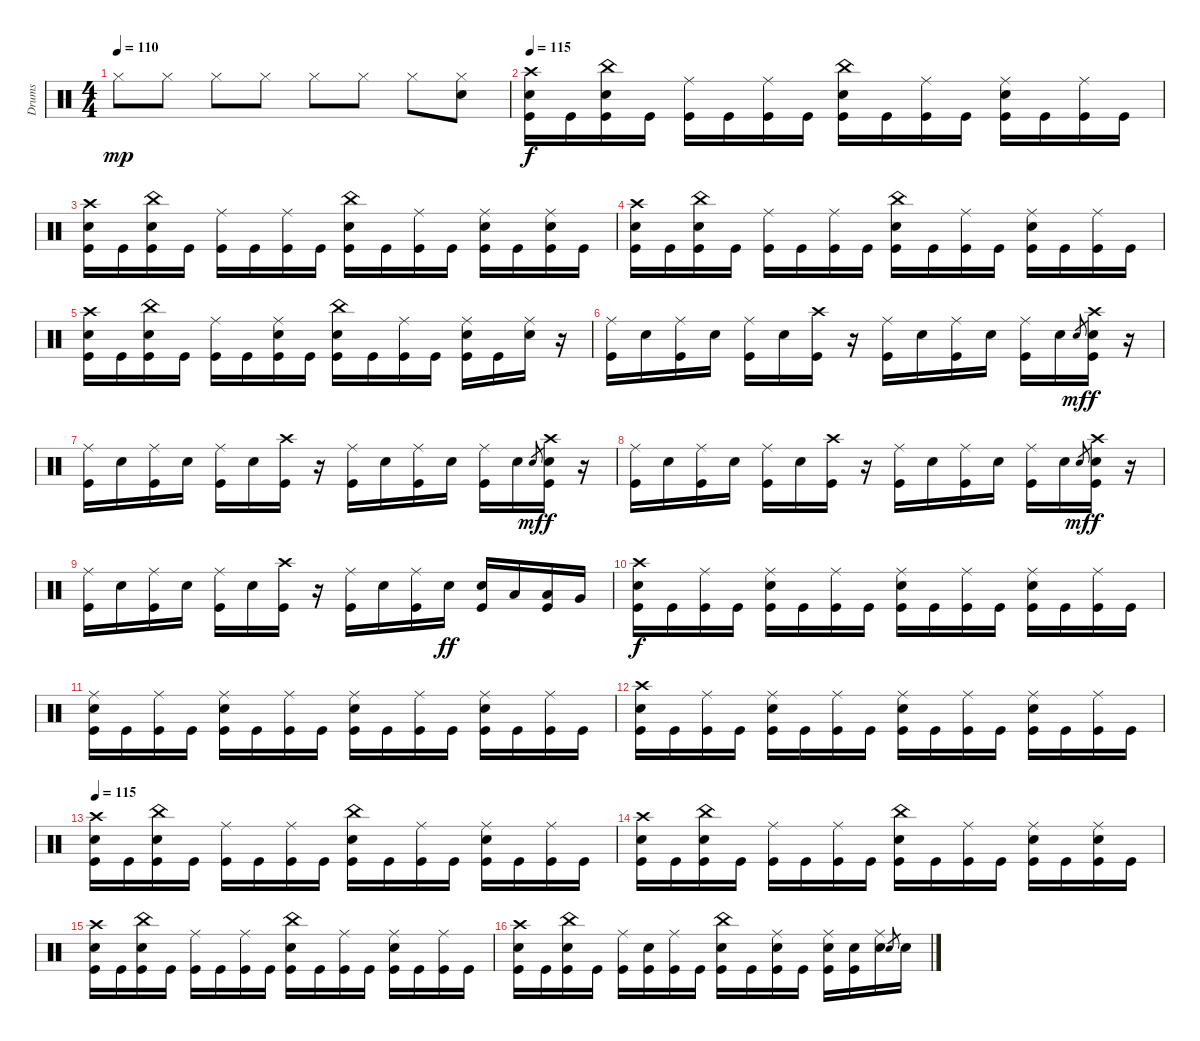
\track ("Drums" "Drums") {instrument percussion}
\staff {score}
\articulation defaults
\ts (4 4)
\tempo 110
\clef neutral
\ks c "Hi-Hat (closed)".8{dy mp} "Hi-Hat (closed)".8 "Hi-Hat (closed)".8 "Hi-Hat (closed)".8 "Hi-Hat (closed)".8 "Hi-Hat (closed)".8 "Hi-Hat (closed)".8
("Hi-Hat (closed)" "Electric Snare (hit)").8 |
\tempo 115
("Crash high (hit)" "Electric Snare (hit)" "Kick (hit)").16{dy f} "Kick (hit)".16 ("China (hit)" "Electric Snare (hit)" "Kick (hit)").16 "Kick (hit)".16 ("Ride (middle)" "Kick (hit)").16 "Kick (hit)".16 ("Ride (middle)" "Kick (hit)").16 "Kick (hit)".16 ("China (hit)" "Electric Snare (hit)" "Kick (hit)").16 "Kick (hit)".16 ("Ride (middle)" "Kick (hit)").16 "Kick (hit)".16 ("Ride (middle)" "Electric Snare (hit)" "Kick (hit)").16 "Kick (hit)".16 ("Ride (middle)" "Kick (hit)").16 "Kick (hit)".16 |
("Crash high (hit)" "Electric Snare (hit)" "Kick (hit)").16 "Kick (hit)".16 ("China (hit)" "Electric Snare (hit)" "Kick (hit)").16 "Kick (hit)".16 ("Ride (middle)" "Kick (hit)").16 "Kick (hit)".16 ("Ride (middle)" "Kick (hit)").16 "Kick (hit)".16 ("China (hit)" "Electric Snare (hit)" "Kick (hit)").16 "Kick (hit)".16 ("Ride (middle)" "Kick (hit)").16 "Kick (hit)".16 ("Ride (middle)" "Electric Snare (hit)" "Kick (hit)").16 "Kick (hit)".16 ("Ride (middle)" "Electric Snare (hit)" "Kick (hit)").16 "Kick (hit)".16 |
("Crash high (hit)" "Electric Snare (hit)" "Kick (hit)").16 "Kick (hit)".16 ("China (hit)" "Electric Snare (hit)" "Kick (hit)").16 "Kick (hit)".16 ("Ride (middle)" "Kick (hit)").16 "Kick (hit)".16 ("Ride (middle)" "Kick (hit)").16 "Kick (hit)".16 ("China (hit)" "Electric Snare (hit)" "Kick (hit)").16 "Kick (hit)".16 ("Ride (middle)" "Kick (hit)").16 "Kick (hit)".16 ("Ride (middle)" "Electric Snare (hit)" "Kick (hit)").16 "Kick (hit)".16 ("Ride (middle)" "Kick (hit)").16 "Kick (hit)".16 |
("Crash high (hit)" "Electric Snare (hit)" "Kick (hit)").16 "Kick (hit)".16 ("China (hit)" "Electric Snare (hit)" "Kick (hit)").16 "Kick (hit)".16 ("Ride (middle)" "Kick (hit)").16 "Kick (hit)".16 ("Ride (middle)" "Electric Snare (hit)" "Kick (hit)").16 "Kick (hit)".16 ("China (hit)" "Electric Snare (hit)" "Kick (hit)").16 "Kick (hit)".16 ("Ride (middle)" "Kick (hit)").16 "Kick (hit)".16 ("Ride (middle)" "Electric Snare (hit)" "Kick (hit)").16 "Kick (hit)".16 ("Ride (middle)" "Electric Snare (hit)").16 r.16 |
("Ride (middle)" "Kick (hit)").16 "Electric Snare (hit)".16 ("Ride (middle)" "Kick (hit)").16 "Electric Snare (hit)".16 ("Ride (middle)" "Kick (hit)").16 "Electric Snare (hit)".16 ("Crash high (hit)" "Kick (hit)").16 r.16 ("Ride (middle)" "Kick (hit)").16 "Electric Snare (hit)".16 ("Ride (middle)" "Kick (hit)").16 "Electric Snare (hit)".16 ("Ride (middle)" "Kick (hit)").16 "Electric Snare (hit)".16 "Electric Snare (hit)".8{gr dy mf} ("Crash high (hit)" "Electric Snare (hit)" "Kick (hit)").16{dy f} r.16 |
("Ride (middle)" "Kick (hit)").16 "Electric Snare (hit)".16 ("Ride (middle)" "Kick (hit)").16 "Electric Snare (hit)".16 ("Ride (middle)" "Kick (hit)").16 "Electric Snare (hit)".16 ("Crash high (hit)" "Kick (hit)").16 r.16 ("Ride (middle)" "Kick (hit)").16 "Electric Snare (hit)".16 ("Ride (middle)" "Kick (hit)").16 "Electric Snare (hit)".16 ("Ride (middle)" "Kick (hit)").16 "Electric Snare (hit)".16 "Electric Snare (hit)".8{gr dy mf} ("Crash high (hit)" "Electric Snare (hit)" "Kick (hit)").16{dy f} r.16 |
("Ride (middle)" "Kick (hit)").16 "Electric Snare (hit)".16 ("Ride (middle)" "Kick (hit)").16 "Electric Snare (hit)".16 ("Ride (middle)" "Kick (hit)").16 "Electric Snare (hit)".16 ("Crash high (hit)" "Kick (hit)").16 r.16 ("Ride (middle)" "Kick (hit)").16 "Electric Snare (hit)".16 ("Ride (middle)" "Kick (hit)").16 "Electric Snare (hit)".16 ("Ride (middle)" "Kick (hit)").16 "Electric Snare (hit)".16 "Electric Snare (hit)".8{gr dy mf} ("Crash high (hit)" "Electric Snare (hit)" "Kick (hit)").16{dy f} r.16 |
("Ride (middle)" "Kick (hit)").16 "Electric Snare (hit)".16 ("Ride (middle)" "Kick (hit)").16 "Electric Snare (hit)".16 ("Ride (middle)" "Kick (hit)").16 "Electric Snare (hit)".16 ("Crash high (hit)" "Kick (hit)").16 r.16 ("Ride (middle)" "Kick (hit)").16 "Electric Snare (hit)".16 ("Ride (middle)" "Kick (hit)").16 "Electric Snare (hit)".16{dy ff} ("Electric Snare (hit)" "Kick (hit)").16 "Low Tom (hit)".16 ("Low Tom (hit)" "Kick (hit)").16 "Very Low Tom (hit)".16 |
("Crash high (hit)" "Electric Snare (hit)" "Kick (hit)").16{dy f} "Kick (hit)".16 ("Ride (middle)" "Kick (hit)").16 "Kick (hit)".16 ("Ride (middle)" "Electric Snare (hit)" "Kick (hit)").16 "Kick (hit)".16 ("Ride (middle)" "Kick (hit)").16 "Kick (hit)".16 ("Ride (middle)" "Electric Snare (hit)" "Kick (hit)").16 "Kick (hit)".16 ("Ride (middle)" "Kick (hit)").16 "Kick (hit)".16 ("Ride (middle)" "Electric Snare (hit)" "Kick (hit)").16 "Kick (hit)".16 ("Ride (middle)" "Kick (hit)").16 "Kick (hit)".16 |
("Ride (middle)" "Electric Snare (hit)" "Kick (hit)").16 "Kick (hit)".16 ("Ride (middle)" "Kick (hit)").16 "Kick (hit)".16 ("Ride (middle)" "Electric Snare (hit)" "Kick (hit)").16 "Kick (hit)".16 ("Ride (middle)" "Kick (hit)").16 "Kick (hit)".16 ("Ride (middle)" "Electric Snare (hit)" "Kick (hit)").16 "Kick (hit)".16 ("Ride (middle)" "Kick (hit)").16 "Kick (hit)".16 ("Ride (middle)" "Electric Snare (hit)" "Kick (hit)").16 "Kick (hit)".16 ("Ride (middle)" "Kick (hit)").16 "Kick (hit)".16 |
("Crash high (hit)" "Electric Snare (hit)" "Kick (hit)").16 "Kick (hit)".16 ("Ride (middle)" "Kick (hit)").16 "Kick (hit)".16 ("Ride (middle)" "Electric Snare (hit)" "Kick (hit)").16 "Kick (hit)".16 ("Ride (middle)" "Kick (hit)").16 "Kick (hit)".16 ("Ride (middle)" "Electric Snare (hit)" "Kick (hit)").16 "Kick (hit)".16 ("Ride (middle)" "Kick (hit)").16 "Kick (hit)".16 ("Ride (middle)" "Electric Snare (hit)" "Kick (hit)").16 "Kick (hit)".16 ("Ride (middle)" "Kick (hit)").16 "Kick (hit)".16 |
\tempo 115
("Crash high (hit)" "Electric Snare (hit)" "Kick (hit)").16 "Kick (hit)".16 ("China (hit)" "Electric Snare (hit)" "Kick (hit)").16 "Kick (hit)".16 ("Ride (middle)" "Kick (hit)").16 "Kick (hit)".16 ("Ride (middle)" "Kick (hit)").16 "Kick (hit)".16 ("China (hit)" "Electric Snare (hit)" "Kick (hit)").16 "Kick (hit)".16 ("Ride (middle)" "Kick (hit)").16 "Kick (hit)".16 ("Ride (middle)" "Electric Snare (hit)" "Kick (hit)").16 "Kick (hit)".16 ("Ride (middle)" "Kick (hit)").16 "Kick (hit)".16 |
("Crash high (hit)" "Electric Snare (hit)" "Kick (hit)").16 "Kick (hit)".16 ("China (hit)" "Electric Snare (hit)" "Kick (hit)").16 "Kick (hit)".16 ("Ride (middle)" "Kick (hit)").16 "Kick (hit)".16 ("Ride (middle)" "Kick (hit)").16 "Kick (hit)".16 ("China (hit)" "Electric Snare (hit)" "Kick (hit)").16 "Kick (hit)".16 ("Ride (middle)" "Kick (hit)").16 "Kick (hit)".16 ("Ride (middle)" "Electric Snare (hit)" "Kick (hit)").16 "Kick (hit)".16 ("Ride (middle)" "Electric Snare (hit)" "Kick (hit)").16 "Kick (hit)".16 |
("Crash high (hit)" "Electric Snare (hit)" "Kick (hit)").16 "Kick (hit)".16 ("China (hit)" "Electric Snare (hit)" "Kick (hit)").16 "Kick (hit)".16 ("Ride (middle)" "Kick (hit)").16 "Kick (hit)".16 ("Ride (middle)" "Kick (hit)").16 "Kick (hit)".16 ("China (hit)" "Electric Snare (hit)" "Kick (hit)").16 "Kick (hit)".16 ("Ride (middle)" "Kick (hit)").16 "Kick (hit)".16 ("Ride (middle)" "Electric Snare (hit)" "Kick (hit)").16 "Kick (hit)".16 ("Ride (middle)" "Kick (hit)").16 "Kick (hit)".16 |
("Crash high (hit)" "Electric Snare (hit)" "Kick (hit)").16 "Kick (hit)".16 ("China (hit)" "Electric Snare (hit)" "Kick (hit)").16 "Kick (hit)".16 ("Ride (middle)" "Kick (hit)").16 ("Electric Snare (hit)" "Kick (hit)").16 ("Ride (middle)" "Kick (hit)").16 "Kick (hit)".16 ("China (hit)" "Electric Snare (hit)" "Kick (hit)").16 "Kick (hit)".16 ("Ride (middle)" "Electric Snare (hit)" "Kick (hit)").16 "Kick (hit)".16 ("Ride (middle)" "Electric Snare (hit)" "Kick (hit)").16 ("Electric Snare (hit)" "Kick (hit)").16 ("Ride (middle)" "Electric Snare (hit)").16 "Electric Snare (hit)".8{gr} "Electric Snare (hit)".16
